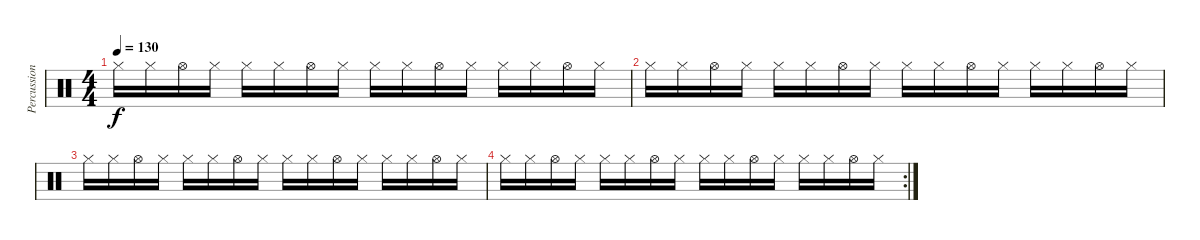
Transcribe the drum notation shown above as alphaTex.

\track ("Percussion" "Percussion") {instrument percussion}
\staff {score}
\articulation defaults
\ts (4 4)
\tempo 130
\clef neutral
\ks c "Hi-Hat (closed)".16{dy f} "Hi-Hat (closed)".16 "Hi-Hat (open)".16 "Hi-Hat (closed)".16 "Hi-Hat (closed)".16 "Hi-Hat (closed)".16 "Hi-Hat (open)".16 "Hi-Hat (closed)".16 "Hi-Hat (closed)".16 "Hi-Hat (closed)".16 "Hi-Hat (open)".16 "Hi-Hat (closed)".16 "Hi-Hat (closed)".16 "Hi-Hat (closed)".16 "Hi-Hat (open)".16 "Hi-Hat (closed)".16
|
"Hi-Hat (closed)".16 "Hi-Hat (closed)".16 "Hi-Hat (open)".16 "Hi-Hat (closed)".16 "Hi-Hat (closed)".16 "Hi-Hat (closed)".16 "Hi-Hat (open)".16 "Hi-Hat (closed)".16 "Hi-Hat (closed)".16 "Hi-Hat (closed)".16 "Hi-Hat (open)".16 "Hi-Hat (closed)".16 "Hi-Hat (closed)".16 "Hi-Hat (closed)".16 "Hi-Hat (open)".16 "Hi-Hat (closed)".16 |
"Hi-Hat (closed)".16 "Hi-Hat (closed)".16 "Hi-Hat (open)".16 "Hi-Hat (closed)".16 "Hi-Hat (closed)".16 "Hi-Hat (closed)".16 "Hi-Hat (open)".16 "Hi-Hat (closed)".16 "Hi-Hat (closed)".16 "Hi-Hat (closed)".16 "Hi-Hat (open)".16 "Hi-Hat (closed)".16 "Hi-Hat (closed)".16 "Hi-Hat (closed)".16 "Hi-Hat (open)".16 "Hi-Hat (closed)".16 |
\rc 2 "Hi-Hat (closed)".16 "Hi-Hat (closed)".16 "Hi-Hat (open)".16 "Hi-Hat (closed)".16 "Hi-Hat (closed)".16 "Hi-Hat (closed)".16 "Hi-Hat (open)".16 "Hi-Hat (closed)".16 "Hi-Hat (closed)".16 "Hi-Hat (closed)".16 "Hi-Hat (open)".16 "Hi-Hat (closed)".16 "Hi-Hat (closed)".16 "Hi-Hat (closed)".16 "Hi-Hat (open)".16 "Hi-Hat (closed)".16
